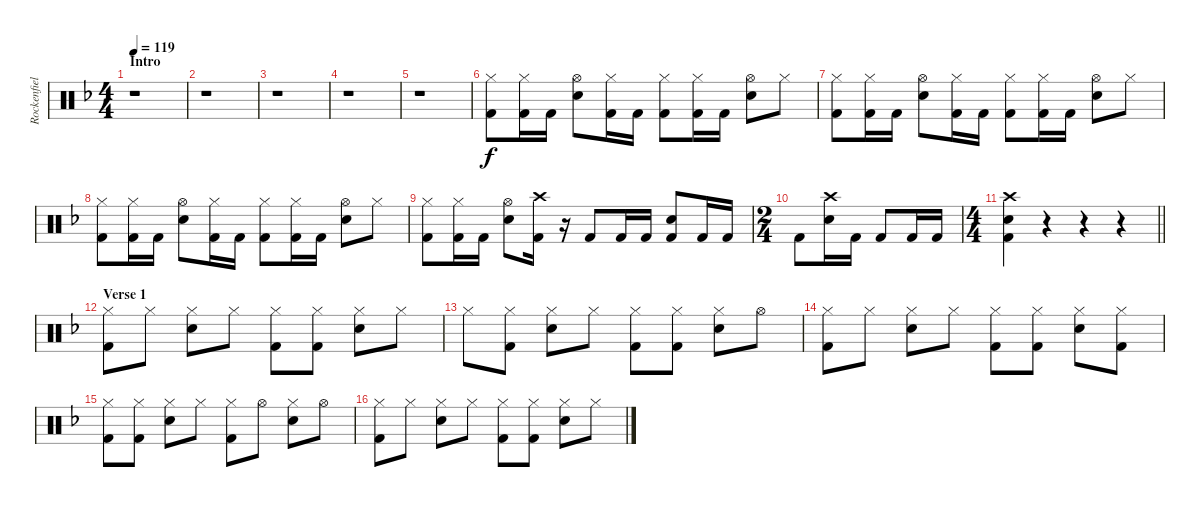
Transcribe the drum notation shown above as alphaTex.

\track ("Rockenfield" "Rockenfiel") {instrument percussion}
\staff {score}
\articulation defaults
\ts (4 4)
\section ("" "Intro")
\tempo 119
\clef neutral
\ks dminor
r.1{dy f} |
r.1 |
r.1 |
r.1 |
r.1 |
("Hi-Hat (closed)" "Kick (hit) 2").8 ("Hi-Hat (closed)" "Kick (hit) 2").16 "Kick (hit) 2".16 ("Hi-Hat (open)" "Snare (hit) 2").8 ("Hi-Hat (closed)" "Kick (hit) 2").16 "Kick (hit) 2".16 ("Hi-Hat (closed)" "Kick (hit) 2").8 ("Hi-Hat (closed)" "Kick (hit) 2").16 "Kick (hit) 2".16 ("Hi-Hat (open)" "Snare (hit) 2").8 "Hi-Hat (closed)".8 |
("Hi-Hat (closed)" "Kick (hit) 2").8 ("Hi-Hat (closed)" "Kick (hit) 2").16 "Kick (hit) 2".16 ("Hi-Hat (open)" "Snare (hit) 2").8 ("Hi-Hat (closed)" "Kick (hit) 2").16 "Kick (hit) 2".16 ("Hi-Hat (closed)" "Kick (hit) 2").8 ("Hi-Hat (closed)" "Kick (hit) 2").16 "Kick (hit) 2".16 ("Hi-Hat (open)" "Snare (hit) 2").8 "Hi-Hat (closed)".8 |
("Hi-Hat (closed)" "Kick (hit) 2").8 ("Hi-Hat (closed)" "Kick (hit) 2").16 "Kick (hit) 2".16 ("Hi-Hat (open)" "Snare (hit) 2").8 ("Hi-Hat (closed)" "Kick (hit) 2").16 "Kick (hit) 2".16 ("Hi-Hat (closed)" "Kick (hit) 2").8 ("Hi-Hat (closed)" "Kick (hit) 2").16 "Kick (hit) 2".16 ("Hi-Hat (open)" "Snare (hit) 2").8 "Hi-Hat (closed)".8 |
("Hi-Hat (closed)" "Kick (hit) 2").8 ("Hi-Hat (closed)" "Kick (hit) 2").16 "Kick (hit) 2".16 ("Hi-Hat (open)" "Snare (hit) 2").8 ("Crash high (hit)" "Kick (hit) 2").16 r.16 "Kick (hit) 2".8 "Kick (hit) 2".16 "Kick (hit) 2".16 ("Kick (hit) 2" "Snare (hit) 2").8 "Kick (hit) 2".16 "Kick (hit) 2".16 |
\ts (2 4)
"Kick (hit) 2".8 ("Crash high (hit)" "Snare (hit) 2").16 "Kick (hit) 2".16 "Kick (hit) 2".8 "Kick (hit) 2".16 "Kick (hit) 2".16 |
\ts (4 4)
\barLineRight lightlight
("Crash high (hit)" "Kick (hit) 2" "Snare (hit) 2").4 r.4 r.4 r.4 |
\section ("" "Verse 1")
("Hi-Hat (closed)" "Kick (hit) 2").8 "Hi-Hat (closed)".8 ("Hi-Hat (closed)" "Snare (hit) 2").8 "Hi-Hat (closed)".8 ("Hi-Hat (closed)" "Kick (hit) 2").8 ("Hi-Hat (closed)" "Kick (hit) 2").8 ("Hi-Hat (closed)" "Snare (hit) 2").8 "Hi-Hat (closed)".8 |
"Hi-Hat (closed)".8 ("Hi-Hat (closed)" "Kick (hit) 2").8 ("Hi-Hat (closed)" "Snare (hit) 2").8 "Hi-Hat (closed)".8 ("Hi-Hat (closed)" "Kick (hit) 2").8 ("Hi-Hat (closed)" "Kick (hit) 2").8 ("Hi-Hat (closed)" "Snare (hit) 2").8 "Hi-Hat (open)".8 |
("Hi-Hat (closed)" "Kick (hit) 2").8 "Hi-Hat (closed)".8 ("Hi-Hat (closed)" "Snare (hit) 2").8 "Hi-Hat (closed)".8 ("Hi-Hat (closed)" "Kick (hit) 2").8 ("Hi-Hat (closed)" "Kick (hit) 2").8 ("Hi-Hat (closed)" "Snare (hit) 2").8 ("Hi-Hat (closed)" "Kick (hit) 2").8 |
("Hi-Hat (closed)" "Kick (hit) 2").8 ("Hi-Hat (closed)" "Kick (hit) 2").8 ("Hi-Hat (closed)" "Snare (hit) 2").8 "Hi-Hat (closed)".8 ("Hi-Hat (closed)" "Kick (hit) 2").8 "Hi-Hat (open)".8 ("Hi-Hat (closed)" "Snare (hit) 2").8 "Hi-Hat (open)".8 |
("Hi-Hat (closed)" "Kick (hit) 2").8 "Hi-Hat (closed)".8 ("Hi-Hat (closed)" "Snare (hit) 2").8 "Hi-Hat (closed)".8 ("Hi-Hat (closed)" "Kick (hit) 2").8 ("Hi-Hat (closed)" "Kick (hit) 2").8 ("Hi-Hat (closed)" "Snare (hit) 2").8 "Hi-Hat (closed)".8
